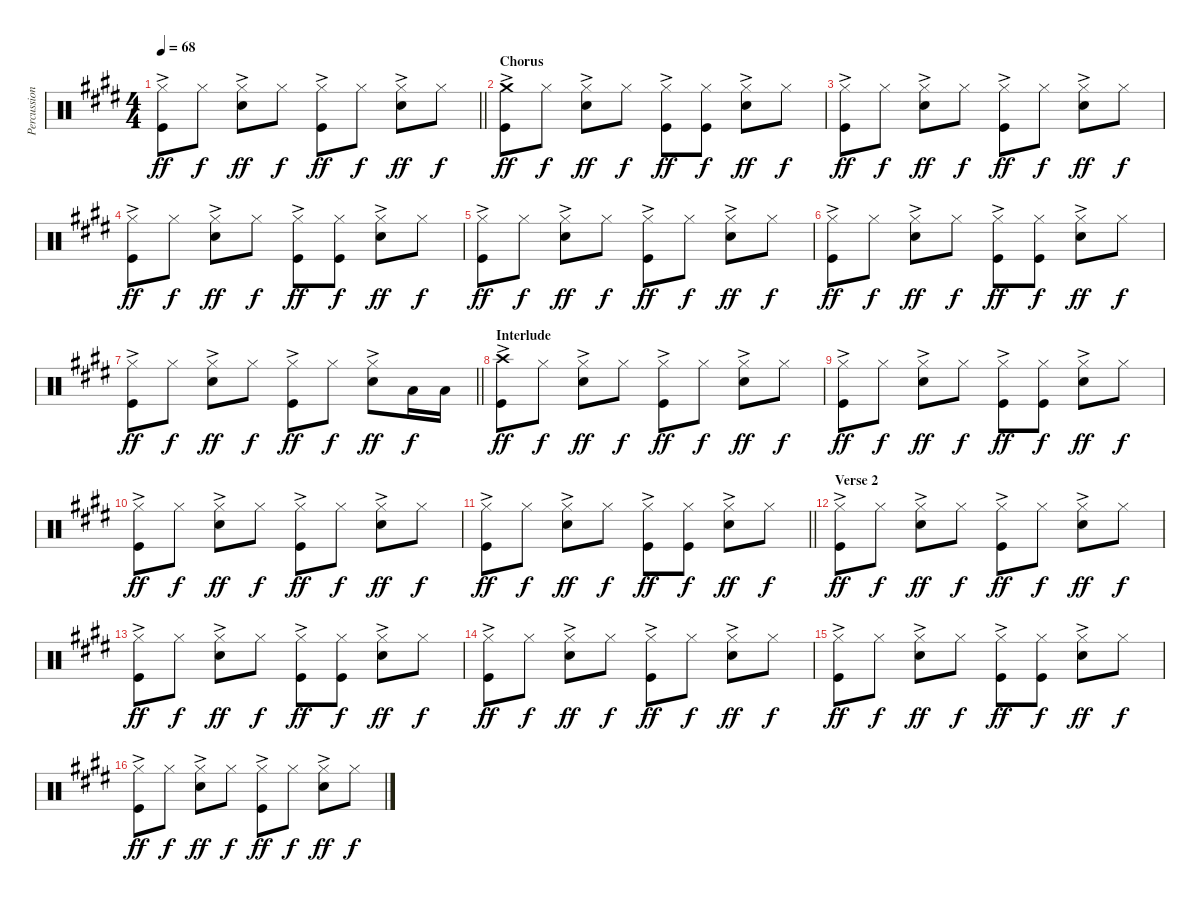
\track ("Percussion" "Percussion") {instrument percussion}
\staff {score}
\articulation defaults
\ts (4 4)
\tempo 68
\clef neutral
\barLineRight lightlight
\ks e
("Hi-Hat (closed)"{ac} "Kick (hit)").8{dy ff} "Hi-Hat (closed)".8{dy f} ("Hi-Hat (closed)"{ac} "Snare (hit) 2").8{dy ff} "Hi-Hat (closed)".8{dy f} ("Hi-Hat (closed)"{ac} "Kick (hit)").8{dy ff} "Hi-Hat (closed)".8{dy f} ("Hi-Hat (closed)"{ac} "Snare (hit) 2").8{dy ff} "Hi-Hat (closed)".8{dy f} |
\section ("" "Chorus")
("Crash medium (hit)"{ac} "Kick (hit)").8{dy ff} "Hi-Hat (closed)".8{dy f} ("Hi-Hat (closed)"{ac} "Snare (hit) 2").8{dy ff} "Hi-Hat (closed)".8{dy f} ("Hi-Hat (closed)"{ac} "Kick (hit)").8{dy ff} ("Hi-Hat (closed)" "Kick (hit)").8{dy f} ("Hi-Hat (closed)"{ac} "Snare (hit) 2").8{dy ff} "Hi-Hat (closed)".8{dy f} |
("Hi-Hat (closed)"{ac} "Kick (hit)").8{dy ff} "Hi-Hat (closed)".8{dy f} ("Hi-Hat (closed)"{ac} "Snare (hit) 2").8{dy ff} "Hi-Hat (closed)".8{dy f} ("Hi-Hat (closed)"{ac} "Kick (hit)").8{dy ff} "Hi-Hat (closed)".8{dy f} ("Hi-Hat (closed)"{ac} "Snare (hit) 2").8{dy ff} "Hi-Hat (closed)".8{dy f} |
("Hi-Hat (closed)"{ac} "Kick (hit)").8{dy ff} "Hi-Hat (closed)".8{dy f} ("Hi-Hat (closed)"{ac} "Snare (hit) 2").8{dy ff} "Hi-Hat (closed)".8{dy f} ("Hi-Hat (closed)"{ac} "Kick (hit)").8{dy ff} ("Hi-Hat (closed)" "Kick (hit)").8{dy f} ("Hi-Hat (closed)"{ac} "Snare (hit) 2").8{dy ff} "Hi-Hat (closed)".8{dy f} |
("Hi-Hat (closed)"{ac} "Kick (hit)").8{dy ff} "Hi-Hat (closed)".8{dy f} ("Hi-Hat (closed)"{ac} "Snare (hit) 2").8{dy ff} "Hi-Hat (closed)".8{dy f} ("Hi-Hat (closed)"{ac} "Kick (hit)").8{dy ff} "Hi-Hat (closed)".8{dy f} ("Hi-Hat (closed)"{ac} "Snare (hit) 2").8{dy ff} "Hi-Hat (closed)".8{dy f} |
("Hi-Hat (closed)"{ac} "Kick (hit)").8{dy ff} "Hi-Hat (closed)".8{dy f} ("Hi-Hat (closed)"{ac} "Snare (hit) 2").8{dy ff} "Hi-Hat (closed)".8{dy f} ("Hi-Hat (closed)"{ac} "Kick (hit)").8{dy ff} ("Hi-Hat (closed)" "Kick (hit)").8{dy f} ("Hi-Hat (closed)"{ac} "Snare (hit) 2").8{dy ff} "Hi-Hat (closed)".8{dy f} |
\barLineRight lightlight
("Hi-Hat (closed)"{ac} "Kick (hit)").8{dy ff} "Hi-Hat (closed)".8{dy f} ("Hi-Hat (closed)"{ac} "Snare (hit) 2").8{dy ff} "Hi-Hat (closed)".8{dy f} ("Hi-Hat (closed)"{ac} "Kick (hit)").8{dy ff} "Hi-Hat (closed)".8{dy f} ("Hi-Hat (closed)"{ac} "Snare (hit) 2").8{dy ff} "Low Floor Tom (hit)".16{dy f} "Low Floor Tom (hit)".16 |
\section ("" "Interlude")
("Crash high (hit)"{ac} "Kick (hit)").8{dy ff} "Hi-Hat (closed)".8{dy f} ("Hi-Hat (closed)"{ac} "Snare (hit) 2").8{dy ff} "Hi-Hat (closed)".8{dy f} ("Hi-Hat (closed)"{ac} "Kick (hit)").8{dy ff} "Hi-Hat (closed)".8{dy f} ("Hi-Hat (closed)"{ac} "Snare (hit) 2").8{dy ff} "Hi-Hat (closed)".8{dy f} |
("Hi-Hat (closed)"{ac} "Kick (hit)").8{dy ff} "Hi-Hat (closed)".8{dy f} ("Hi-Hat (closed)"{ac} "Snare (hit) 2").8{dy ff} "Hi-Hat (closed)".8{dy f} ("Hi-Hat (closed)"{ac} "Kick (hit)").8{dy ff} ("Hi-Hat (closed)" "Kick (hit)").8{dy f} ("Hi-Hat (closed)"{ac} "Snare (hit) 2").8{dy ff} "Hi-Hat (closed)".8{dy f} |
("Hi-Hat (closed)"{ac} "Kick (hit)").8{dy ff} "Hi-Hat (closed)".8{dy f} ("Hi-Hat (closed)"{ac} "Snare (hit) 2").8{dy ff} "Hi-Hat (closed)".8{dy f} ("Hi-Hat (closed)"{ac} "Kick (hit)").8{dy ff} "Hi-Hat (closed)".8{dy f} ("Hi-Hat (closed)"{ac} "Snare (hit) 2").8{dy ff} "Hi-Hat (closed)".8{dy f} |
\barLineRight lightlight
("Hi-Hat (closed)"{ac} "Kick (hit)").8{dy ff} "Hi-Hat (closed)".8{dy f} ("Hi-Hat (closed)"{ac} "Snare (hit) 2").8{dy ff} "Hi-Hat (closed)".8{dy f} ("Hi-Hat (closed)"{ac} "Kick (hit)").8{dy ff} ("Hi-Hat (closed)" "Kick (hit)").8{dy f} ("Hi-Hat (closed)"{ac} "Snare (hit) 2").8{dy ff} "Hi-Hat (closed)".8{dy f} |
\section ("" "Verse 2")
("Hi-Hat (closed)"{ac} "Kick (hit)").8{dy ff} "Hi-Hat (closed)".8{dy f} ("Hi-Hat (closed)"{ac} "Snare (hit) 2").8{dy ff} "Hi-Hat (closed)".8{dy f} ("Hi-Hat (closed)"{ac} "Kick (hit)").8{dy ff} "Hi-Hat (closed)".8{dy f} ("Hi-Hat (closed)"{ac} "Snare (hit) 2").8{dy ff} "Hi-Hat (closed)".8{dy f} |
("Hi-Hat (closed)"{ac} "Kick (hit)").8{dy ff} "Hi-Hat (closed)".8{dy f} ("Hi-Hat (closed)"{ac} "Snare (hit) 2").8{dy ff} "Hi-Hat (closed)".8{dy f} ("Hi-Hat (closed)"{ac} "Kick (hit)").8{dy ff} ("Hi-Hat (closed)" "Kick (hit)").8{dy f} ("Hi-Hat (closed)"{ac} "Snare (hit) 2").8{dy ff} "Hi-Hat (closed)".8{dy f} |
("Hi-Hat (closed)"{ac} "Kick (hit)").8{dy ff} "Hi-Hat (closed)".8{dy f} ("Hi-Hat (closed)"{ac} "Snare (hit) 2").8{dy ff} "Hi-Hat (closed)".8{dy f} ("Hi-Hat (closed)"{ac} "Kick (hit)").8{dy ff} "Hi-Hat (closed)".8{dy f} ("Hi-Hat (closed)"{ac} "Snare (hit) 2").8{dy ff} "Hi-Hat (closed)".8{dy f} |
("Hi-Hat (closed)"{ac} "Kick (hit)").8{dy ff} "Hi-Hat (closed)".8{dy f} ("Hi-Hat (closed)"{ac} "Snare (hit) 2").8{dy ff} "Hi-Hat (closed)".8{dy f} ("Hi-Hat (closed)"{ac} "Kick (hit)").8{dy ff} ("Hi-Hat (closed)" "Kick (hit)").8{dy f} ("Hi-Hat (closed)"{ac} "Snare (hit) 2").8{dy ff} "Hi-Hat (closed)".8{dy f} |
("Hi-Hat (closed)"{ac} "Kick (hit)").8{dy ff} "Hi-Hat (closed)".8{dy f} ("Hi-Hat (closed)"{ac} "Snare (hit) 2").8{dy ff} "Hi-Hat (closed)".8{dy f} ("Hi-Hat (closed)"{ac} "Kick (hit)").8{dy ff} "Hi-Hat (closed)".8{dy f} ("Hi-Hat (closed)"{ac} "Snare (hit) 2").8{dy ff} "Hi-Hat (closed)".8{dy f}
